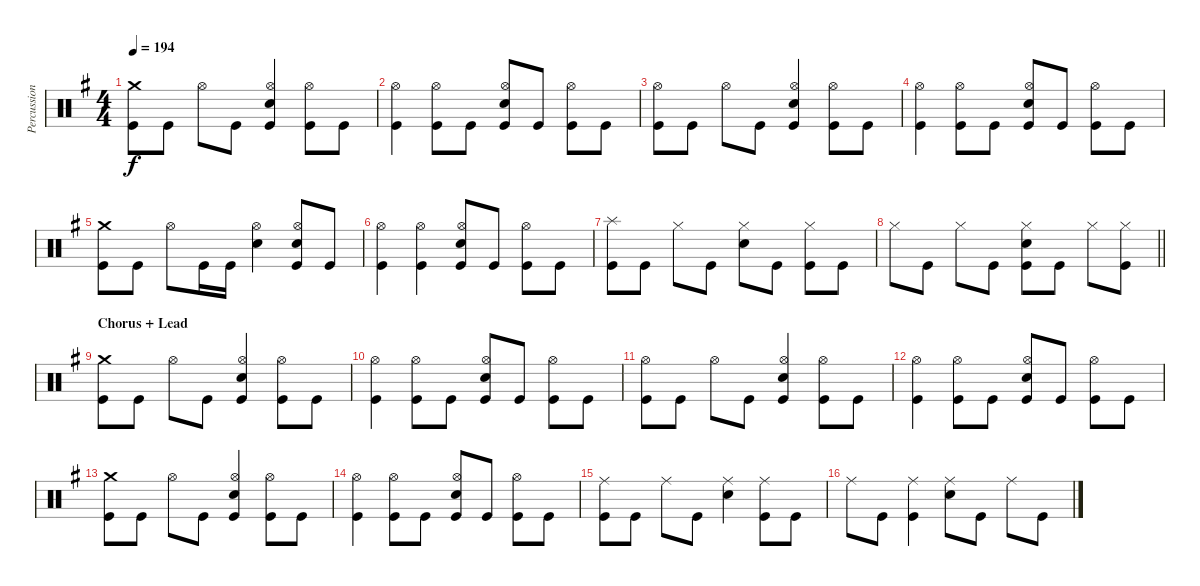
\track ("Percussion" "Percussion") {instrument percussion}
\staff {score}
\articulation defaults
\ts (4 4)
\tempo 194
\clef neutral
\ks g
("Crash medium (hit)" "Kick (hit)").8{dy f} "Kick (hit)".8 "Hi-Hat (open)".8 "Kick (hit)".8 ("Hi-Hat (open)" "Electric Snare (hit)" "Kick (hit)").4 ("Hi-Hat (open)" "Kick (hit)").8 "Kick (hit)".8 |
("Hi-Hat (open)" "Kick (hit)").4 ("Hi-Hat (open)" "Kick (hit)").8 "Kick (hit)".8 ("Hi-Hat (open)" "Electric Snare (hit)" "Kick (hit)").8 "Kick (hit)".8 ("Hi-Hat (open)" "Kick (hit)").8 "Kick (hit)".8 |
("Hi-Hat (open)" "Kick (hit)").8 "Kick (hit)".8 "Hi-Hat (open)".8 "Kick (hit)".8 ("Hi-Hat (open)" "Electric Snare (hit)" "Kick (hit)").4 ("Hi-Hat (open)" "Kick (hit)").8 "Kick (hit)".8 |
("Hi-Hat (open)" "Kick (hit)").4 ("Hi-Hat (open)" "Kick (hit)").8 "Kick (hit)".8 ("Hi-Hat (open)" "Electric Snare (hit)" "Kick (hit)").8 "Kick (hit)".8 ("Hi-Hat (open)" "Kick (hit)").8 "Kick (hit)".8 |
("Crash medium (hit)" "Kick (hit)").8 "Kick (hit)".8 "Hi-Hat (open)".8 "Kick (hit)".16 "Kick (hit)".16 ("Hi-Hat (open)" "Electric Snare (hit)").4 ("Hi-Hat (open)" "Electric Snare (hit)" "Kick (hit)").8 "Kick (hit)".8 |
("Hi-Hat (open)" "Kick (hit)").4 ("Hi-Hat (open)" "Kick (hit)").4 ("Hi-Hat (open)" "Electric Snare (hit)" "Kick (hit)").8 "Kick (hit)".8 ("Hi-Hat (open)" "Kick (hit)").8 "Kick (hit)".8 |
("Splash (hit)" "Kick (hit)").8 "Kick (hit)".8 "Hi-Hat (closed)".8 "Kick (hit)".8 ("Hi-Hat (closed)" "Electric Snare (hit)").8 "Kick (hit)".8 ("Hi-Hat (closed)" "Kick (hit)").8 "Kick (hit)".8 |
\barLineRight lightlight "Hi-Hat (closed)".8 "Kick (hit)".8 "Hi-Hat (closed)".8 "Kick (hit)".8
("Hi-Hat (closed)" "Electric Snare (hit)" "Kick (hit)").8 "Kick (hit)".8 "Hi-Hat (closed)".8 ("Hi-Hat (closed)" "Kick (hit)").8 |
\section ("" "Chorus + Lead")
("Crash medium (hit)" "Kick (hit)").8 "Kick (hit)".8 "Hi-Hat (open)".8 "Kick (hit)".8 ("Hi-Hat (open)" "Electric Snare (hit)" "Kick (hit)").4 ("Hi-Hat (open)" "Kick (hit)").8 "Kick (hit)".8 |
("Hi-Hat (open)" "Kick (hit)").4 ("Hi-Hat (open)" "Kick (hit)").8 "Kick (hit)".8 ("Hi-Hat (open)" "Electric Snare (hit)" "Kick (hit)").8 "Kick (hit)".8 ("Hi-Hat (open)" "Kick (hit)").8 "Kick (hit)".8 |
("Hi-Hat (open)" "Kick (hit)").8 "Kick (hit)".8 "Hi-Hat (open)".8 "Kick (hit)".8 ("Hi-Hat (open)" "Electric Snare (hit)" "Kick (hit)").4 ("Hi-Hat (open)" "Kick (hit)").8 "Kick (hit)".8 |
("Hi-Hat (open)" "Kick (hit)").4 ("Hi-Hat (open)" "Kick (hit)").8 "Kick (hit)".8 ("Hi-Hat (open)" "Electric Snare (hit)" "Kick (hit)").8 "Kick (hit)".8 ("Hi-Hat (open)" "Kick (hit)").8 "Kick (hit)".8 |
("Crash medium (hit)" "Kick (hit)").8 "Kick (hit)".8 "Hi-Hat (open)".8 "Kick (hit)".8 ("Hi-Hat (open)" "Electric Snare (hit)" "Kick (hit)").4 ("Hi-Hat (open)" "Kick (hit)").8 "Kick (hit)".8 |
("Hi-Hat (open)" "Kick (hit)").4 ("Hi-Hat (open)" "Kick (hit)").8 "Kick (hit)".8 ("Hi-Hat (open)" "Electric Snare (hit)" "Kick (hit)").8 "Kick (hit)".8 ("Hi-Hat (open)" "Kick (hit)").8 "Kick (hit)".8 |
("Ride (middle)" "Kick (hit)").8 "Kick (hit)".8 "Ride (middle)".8 "Kick (hit)".8 ("Ride (middle)" "Electric Snare (hit)").4 ("Ride (middle)" "Kick (hit)").8 "Kick (hit)".8 |
"Ride (middle)".8 "Kick (hit)".8 ("Ride (middle)" "Kick (hit)").4 ("Ride (middle)" "Electric Snare (hit)").8 "Kick (hit)".8 "Ride (middle)".8 "Kick (hit)".8
